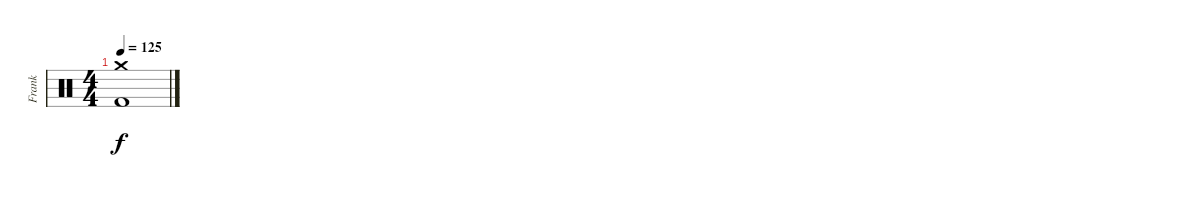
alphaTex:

\track ("Frank" "Frank") {instrument percussion}
\staff {score}
\articulation defaults
\ts (4 4)
\tempo 125
\clef neutral
\ks c
("Crash medium (hit)" "Kick (hit) 2").1{dy f}
